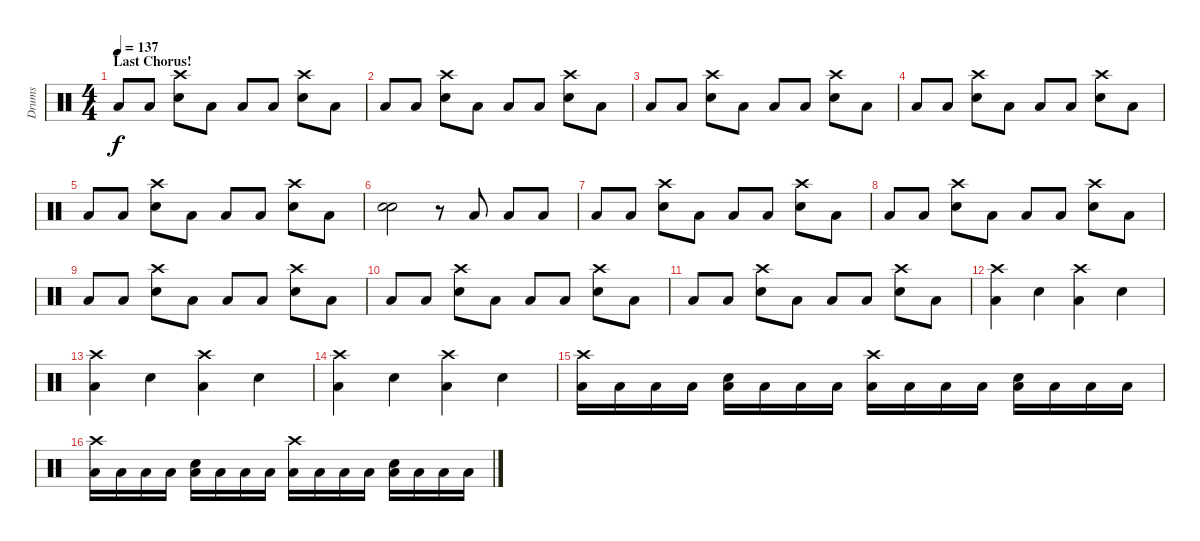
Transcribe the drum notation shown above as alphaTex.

\track ("Drums" "Drums") {instrument percussion}
\staff {score}
\articulation defaults
\ts (4 4)
\section ("" "Last Chorus!")
\tempo 137
\clef neutral
\ks c "Low Floor Tom (hit)".8{dy f} "Low Floor Tom (hit)".8
("Crash high (hit)" "Electric Snare (hit)").8 "Low Floor Tom (hit)".8 "Low Floor Tom (hit)".8 "Low Floor Tom (hit)".8 ("Crash high (hit)" "Electric Snare (hit)").8 "Low Floor Tom (hit)".8 |
"Low Floor Tom (hit)".8 "Low Floor Tom (hit)".8 ("Crash high (hit)" "Electric Snare (hit)").8 "Low Floor Tom (hit)".8 "Low Floor Tom (hit)".8 "Low Floor Tom (hit)".8 ("Crash high (hit)" "Electric Snare (hit)").8 "Low Floor Tom (hit)".8 |
"Low Floor Tom (hit)".8 "Low Floor Tom (hit)".8 ("Crash high (hit)" "Electric Snare (hit)").8 "Low Floor Tom (hit)".8 "Low Floor Tom (hit)".8 "Low Floor Tom (hit)".8 ("Crash high (hit)" "Electric Snare (hit)").8 "Low Floor Tom (hit)".8 |
"Low Floor Tom (hit)".8 "Low Floor Tom (hit)".8 ("Crash high (hit)" "Electric Snare (hit)").8 "Low Floor Tom (hit)".8 "Low Floor Tom (hit)".8 "Low Floor Tom (hit)".8 ("Crash high (hit)" "Electric Snare (hit)").8 "Low Floor Tom (hit)".8 |
"Low Floor Tom (hit)".8 "Low Floor Tom (hit)".8 ("Crash high (hit)" "Electric Snare (hit)").8 "Low Floor Tom (hit)".8 "Low Floor Tom (hit)".8 "Low Floor Tom (hit)".8 ("Crash high (hit)" "Electric Snare (hit)").8 "Low Floor Tom (hit)".8 |
("Snare (hit)" "Electric Snare (hit)").2 r.8 "Low Floor Tom (hit)".8 "Low Floor Tom (hit)".8 "Low Floor Tom (hit)".8 |
"Low Floor Tom (hit)".8 "Low Floor Tom (hit)".8 ("Crash high (hit)" "Electric Snare (hit)").8 "Low Floor Tom (hit)".8 "Low Floor Tom (hit)".8 "Low Floor Tom (hit)".8 ("Crash high (hit)" "Electric Snare (hit)").8 "Low Floor Tom (hit)".8 |
"Low Floor Tom (hit)".8 "Low Floor Tom (hit)".8 ("Crash high (hit)" "Electric Snare (hit)").8 "Low Floor Tom (hit)".8 "Low Floor Tom (hit)".8 "Low Floor Tom (hit)".8 ("Crash high (hit)" "Electric Snare (hit)").8 "Low Floor Tom (hit)".8 |
"Low Floor Tom (hit)".8 "Low Floor Tom (hit)".8 ("Crash high (hit)" "Electric Snare (hit)").8 "Low Floor Tom (hit)".8 "Low Floor Tom (hit)".8 "Low Floor Tom (hit)".8 ("Crash high (hit)" "Electric Snare (hit)").8 "Low Floor Tom (hit)".8 |
"Low Floor Tom (hit)".8 "Low Floor Tom (hit)".8 ("Crash high (hit)" "Electric Snare (hit)").8 "Low Floor Tom (hit)".8 "Low Floor Tom (hit)".8 "Low Floor Tom (hit)".8 ("Crash high (hit)" "Electric Snare (hit)").8 "Low Floor Tom (hit)".8 |
"Low Floor Tom (hit)".8 "Low Floor Tom (hit)".8 ("Crash high (hit)" "Electric Snare (hit)").8 "Low Floor Tom (hit)".8 "Low Floor Tom (hit)".8 "Low Floor Tom (hit)".8 ("Crash high (hit)" "Electric Snare (hit)").8 "Low Floor Tom (hit)".8 |
("Crash high (hit)" "Low Floor Tom (hit)").4 "Electric Snare (hit)".4 ("Crash high (hit)" "Low Floor Tom (hit)").4 "Electric Snare (hit)".4 |
("Crash high (hit)" "Low Floor Tom (hit)").4 "Electric Snare (hit)".4 ("Crash high (hit)" "Low Floor Tom (hit)").4 "Electric Snare (hit)".4 |
("Crash high (hit)" "Low Floor Tom (hit)").4 "Electric Snare (hit)".4 ("Crash high (hit)" "Low Floor Tom (hit)").4 "Electric Snare (hit)".4 |
("Crash high (hit)" "Low Floor Tom (hit)").16 "Low Floor Tom (hit)".16 "Low Floor Tom (hit)".16 "Low Floor Tom (hit)".16 ("Electric Snare (hit)" "Low Floor Tom (hit)").16 "Low Floor Tom (hit)".16 "Low Floor Tom (hit)".16 "Low Floor Tom (hit)".16 ("Crash high (hit)" "Low Floor Tom (hit)").16 "Low Floor Tom (hit)".16 "Low Floor Tom (hit)".16 "Low Floor Tom (hit)".16 ("Electric Snare (hit)" "Low Floor Tom (hit)").16 "Low Floor Tom (hit)".16 "Low Floor Tom (hit)".16 "Low Floor Tom (hit)".16 |
("Crash high (hit)" "Low Floor Tom (hit)").16 "Low Floor Tom (hit)".16 "Low Floor Tom (hit)".16 "Low Floor Tom (hit)".16 ("Electric Snare (hit)" "Low Floor Tom (hit)").16 "Low Floor Tom (hit)".16 "Low Floor Tom (hit)".16 "Low Floor Tom (hit)".16 ("Crash high (hit)" "Low Floor Tom (hit)").16 "Low Floor Tom (hit)".16 "Low Floor Tom (hit)".16 "Low Floor Tom (hit)".16 ("Electric Snare (hit)" "Low Floor Tom (hit)").16 "Low Floor Tom (hit)".16 "Low Floor Tom (hit)".16 "Low Floor Tom (hit)".16
